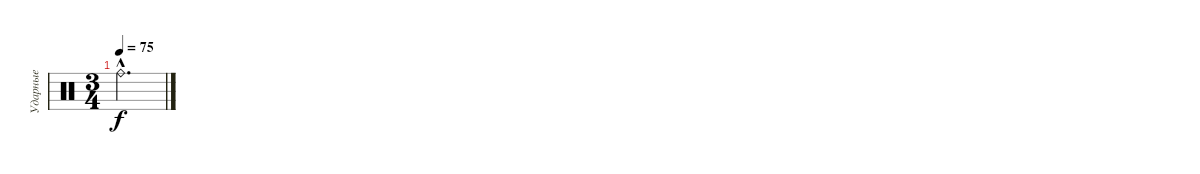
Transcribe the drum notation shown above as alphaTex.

\track ("Ударные" "Ударные") {instrument percussion}
\staff {score}
\articulation defaults
\ts (3 4)
\tempo 75
\clef neutral
\ks c "Ride (bell)"{hac}.2{d dy f}
